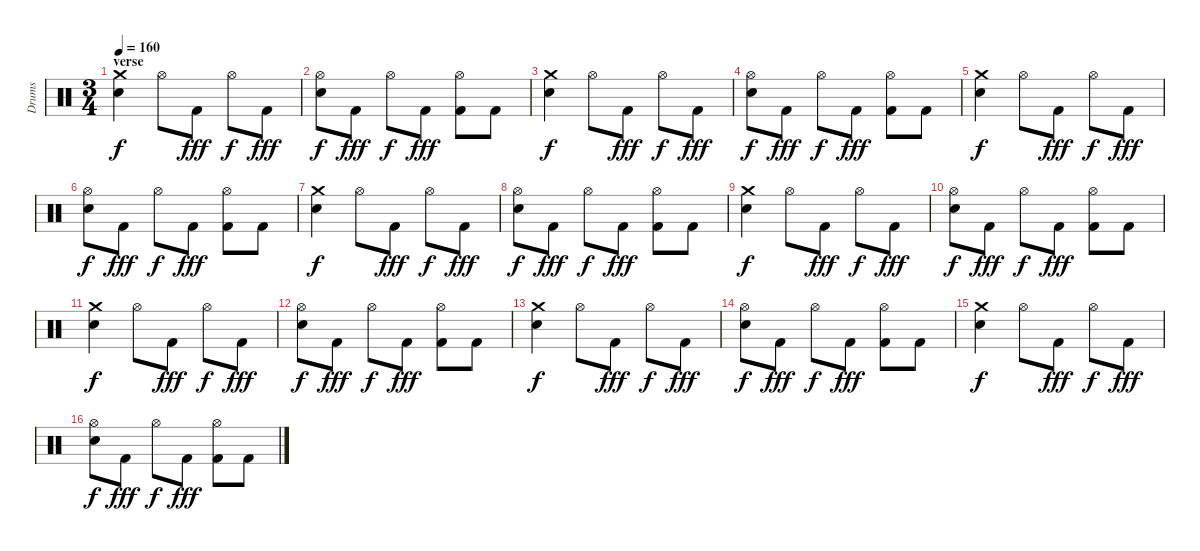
\track ("Drums" "Drums") {instrument percussion}
\staff {score}
\articulation defaults
\ts (3 4)
\section ("" "verse")
\tempo 160
\clef neutral
\ks c
("Crash medium (hit)" "Electric Snare (hit)").4{dy f} "Hi-Hat (open)".8 "Kick (hit) 2".8{dy fff} "Hi-Hat (open)".8{dy f} "Kick (hit) 2".8{dy fff} |
("Hi-Hat (open)" "Electric Snare (hit)").8{dy f} "Kick (hit) 2".8{dy fff} "Hi-Hat (open)".8{dy f} "Kick (hit) 2".8{dy fff} ("Hi-Hat (open)" "Kick (hit) 2").8 "Kick (hit) 2".8 |
("Crash medium (hit)" "Electric Snare (hit)").4{dy f} "Hi-Hat (open)".8 "Kick (hit) 2".8{dy fff} "Hi-Hat (open)".8{dy f} "Kick (hit) 2".8{dy fff} |
("Hi-Hat (open)" "Electric Snare (hit)").8{dy f} "Kick (hit) 2".8{dy fff} "Hi-Hat (open)".8{dy f} "Kick (hit) 2".8{dy fff} ("Hi-Hat (open)" "Kick (hit) 2").8 "Kick (hit) 2".8 |
("Crash medium (hit)" "Electric Snare (hit)").4{dy f} "Hi-Hat (open)".8 "Kick (hit) 2".8{dy fff} "Hi-Hat (open)".8{dy f} "Kick (hit) 2".8{dy fff} |
("Hi-Hat (open)" "Electric Snare (hit)").8{dy f} "Kick (hit) 2".8{dy fff} "Hi-Hat (open)".8{dy f} "Kick (hit) 2".8{dy fff} ("Hi-Hat (open)" "Kick (hit) 2").8 "Kick (hit) 2".8 |
("Crash medium (hit)" "Electric Snare (hit)").4{dy f} "Hi-Hat (open)".8 "Kick (hit) 2".8{dy fff} "Hi-Hat (open)".8{dy f} "Kick (hit) 2".8{dy fff} |
("Hi-Hat (open)" "Electric Snare (hit)").8{dy f} "Kick (hit) 2".8{dy fff} "Hi-Hat (open)".8{dy f} "Kick (hit) 2".8{dy fff} ("Hi-Hat (open)" "Kick (hit) 2").8 "Kick (hit) 2".8 |
("Crash medium (hit)" "Electric Snare (hit)").4{dy f} "Hi-Hat (open)".8 "Kick (hit) 2".8{dy fff} "Hi-Hat (open)".8{dy f} "Kick (hit) 2".8{dy fff} |
("Hi-Hat (open)" "Electric Snare (hit)").8{dy f} "Kick (hit) 2".8{dy fff} "Hi-Hat (open)".8{dy f} "Kick (hit) 2".8{dy fff} ("Hi-Hat (open)" "Kick (hit) 2").8 "Kick (hit) 2".8 |
("Crash medium (hit)" "Electric Snare (hit)").4{dy f} "Hi-Hat (open)".8 "Kick (hit) 2".8{dy fff} "Hi-Hat (open)".8{dy f} "Kick (hit) 2".8{dy fff} |
("Hi-Hat (open)" "Electric Snare (hit)").8{dy f} "Kick (hit) 2".8{dy fff} "Hi-Hat (open)".8{dy f} "Kick (hit) 2".8{dy fff} ("Hi-Hat (open)" "Kick (hit) 2").8 "Kick (hit) 2".8 |
("Crash medium (hit)" "Electric Snare (hit)").4{dy f} "Hi-Hat (open)".8 "Kick (hit) 2".8{dy fff} "Hi-Hat (open)".8{dy f} "Kick (hit) 2".8{dy fff} |
("Hi-Hat (open)" "Electric Snare (hit)").8{dy f} "Kick (hit) 2".8{dy fff} "Hi-Hat (open)".8{dy f} "Kick (hit) 2".8{dy fff} ("Hi-Hat (open)" "Kick (hit) 2").8 "Kick (hit) 2".8 |
("Crash medium (hit)" "Electric Snare (hit)").4{dy f} "Hi-Hat (open)".8 "Kick (hit) 2".8{dy fff} "Hi-Hat (open)".8{dy f} "Kick (hit) 2".8{dy fff} |
("Hi-Hat (open)" "Electric Snare (hit)").8{dy f} "Kick (hit) 2".8{dy fff} "Hi-Hat (open)".8{dy f} "Kick (hit) 2".8{dy fff} ("Hi-Hat (open)" "Kick (hit) 2").8 "Kick (hit) 2".8
